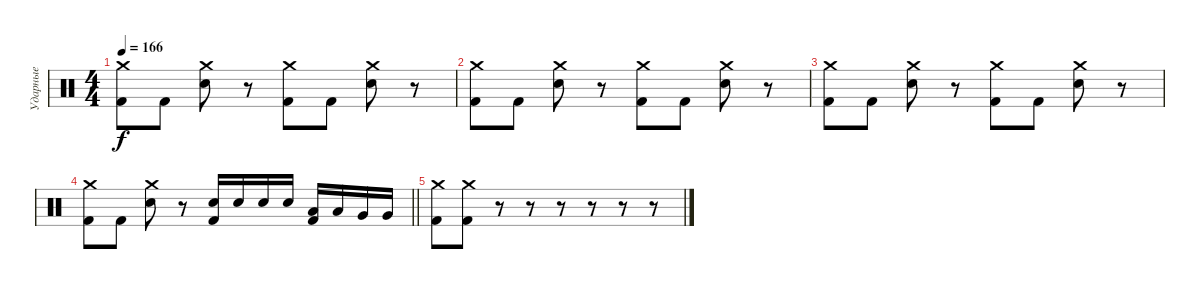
\track ("Ударные" "Ударные") {instrument percussion}
\staff {score}
\articulation defaults
\ts (4 4)
\tempo 166
\clef neutral
\ks c
("Crash medium (hit)" "Kick (hit) 2").8{dy f} "Kick (hit) 2".8 ("Crash medium (hit)" "Snare (hit) 2").8 r.8 ("Crash medium (hit)" "Kick (hit) 2").8 "Kick (hit) 2".8 ("Crash medium (hit)" "Snare (hit) 2").8 r.8 |
("Crash medium (hit)" "Kick (hit) 2").8 "Kick (hit) 2".8 ("Crash medium (hit)" "Snare (hit) 2").8 r.8 ("Crash medium (hit)" "Kick (hit) 2").8 "Kick (hit) 2".8 ("Crash medium (hit)" "Snare (hit) 2").8 r.8 |
("Crash medium (hit)" "Kick (hit) 2").8 "Kick (hit) 2".8 ("Crash medium (hit)" "Snare (hit) 2").8 r.8 ("Crash medium (hit)" "Kick (hit) 2").8 "Kick (hit) 2".8 ("Crash medium (hit)" "Snare (hit) 2").8 r.8 |
\barLineRight lightlight
("Crash medium (hit)" "Kick (hit) 2").8 "Kick (hit) 2".8 ("Crash medium (hit)" "Snare (hit) 2").8 r.8 ("Snare (hit) 2" "Kick (hit) 2").16 "Snare (hit) 2".16 "Snare (hit) 2".16 "Snare (hit) 2".16 ("Low Tom (hit)" "Kick (hit) 2").16 "Low Tom (hit)".16 "Very Low Tom (hit)".16 "Very Low Tom (hit)".16 |
("Crash medium (hit)" "Kick (hit) 2").8 ("Crash medium (hit)" "Kick (hit) 2").8 r.8 r.8 r.8 r.8 r.8 r.8
